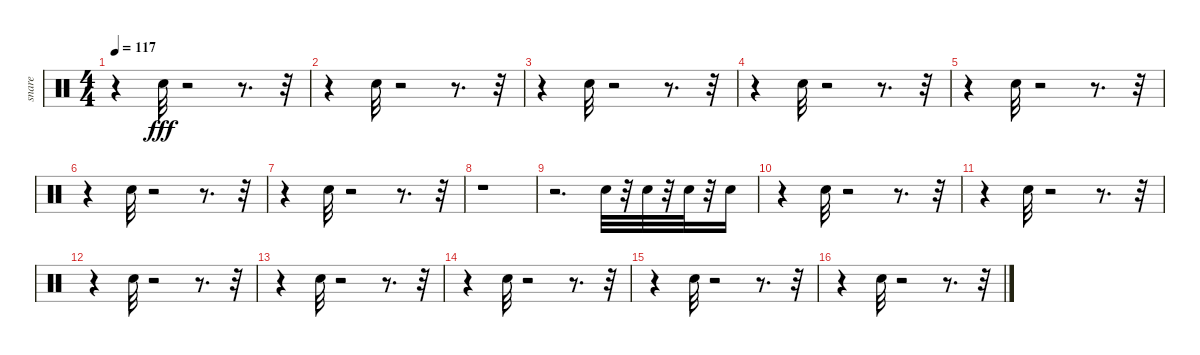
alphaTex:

\track ("snare" "snare") {instrument percussion}
\staff {score}
\articulation defaults
\ts (4 4)
\tempo 117
\clef neutral
\ks c
r.4{dy fff} "Snare (hit) 2".32 r.2 r.8{d} r.32 |
r.4 "Snare (hit) 2".32 r.2 r.8{d} r.32 |
r.4 "Snare (hit) 2".32 r.2 r.8{d} r.32 |
r.4 "Snare (hit) 2".32 r.2 r.8{d} r.32 |
r.4 "Snare (hit) 2".32 r.2 r.8{d} r.32 |
r.4 "Snare (hit) 2".32 r.2 r.8{d} r.32 |
r.4 "Snare (hit) 2".32 r.2 r.8{d} r.32 |
r.1 |
r.2{d} "Snare (hit) 2".32 r.32 "Snare (hit) 2".32 r.32 "Snare (hit) 2".32 r.32 "Snare (hit) 2".16 |
r.4 "Snare (hit) 2".32 r.2 r.8{d} r.32 |
r.4 "Snare (hit) 2".32 r.2 r.8{d} r.32 |
r.4 "Snare (hit) 2".32 r.2 r.8{d} r.32 |
r.4 "Snare (hit) 2".32 r.2 r.8{d} r.32 |
r.4 "Snare (hit) 2".32 r.2 r.8{d} r.32 |
r.4 "Snare (hit) 2".32 r.2 r.8{d} r.32 |
r.4 "Snare (hit) 2".32 r.2 r.8{d} r.32
